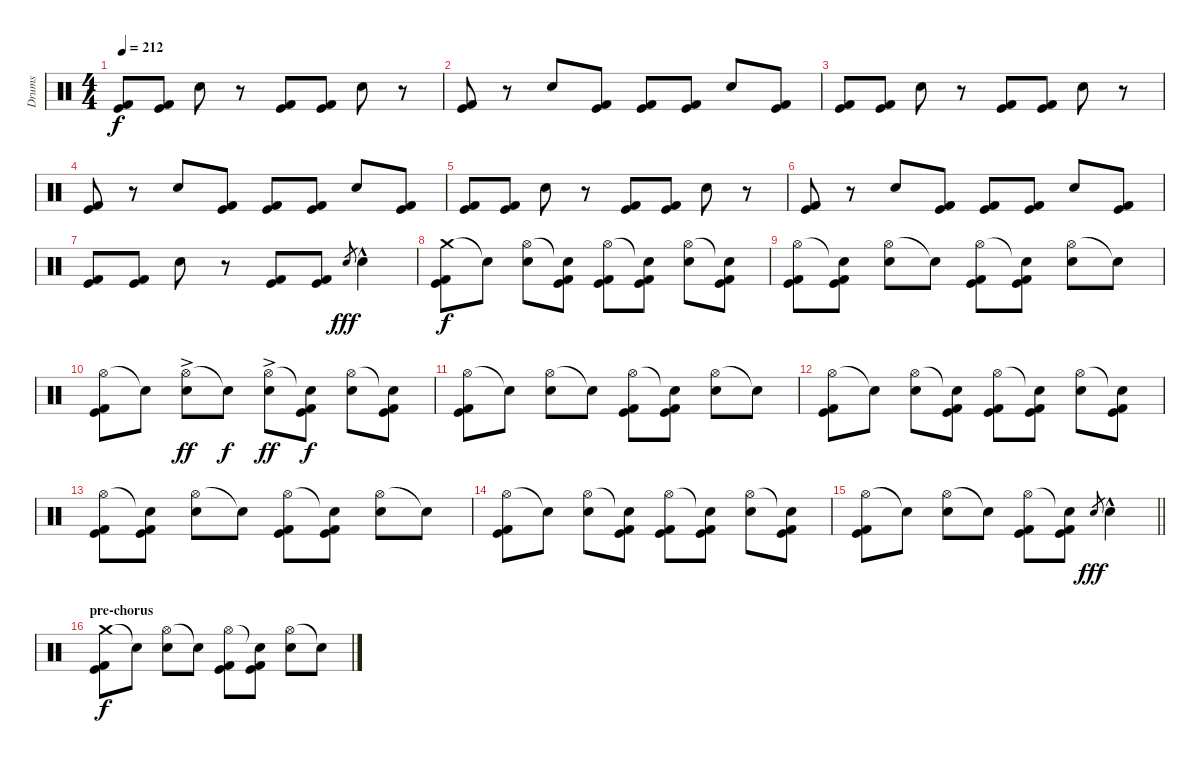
\track ("Drums" "Drums") {instrument percussion}
\staff {score}
\articulation defaults
\ts (4 4)
\tempo 212
\clef neutral
\ks c
("Kick (hit)" "Kick (hit) 2").8{dy f} ("Kick (hit)" "Kick (hit) 2").8 "Snare (hit) 2".8 r.8 ("Kick (hit)" "Kick (hit) 2").8 ("Kick (hit)" "Kick (hit) 2").8 "Snare (hit) 2".8 r.8 |
("Kick (hit)" "Kick (hit) 2").8 r.8 "Snare (hit) 2".8 ("Kick (hit)" "Kick (hit) 2").8 ("Kick (hit)" "Kick (hit) 2").8 ("Kick (hit)" "Kick (hit) 2").8 "Snare (hit) 2".8 ("Kick (hit)" "Kick (hit) 2").8 |
("Kick (hit)" "Kick (hit) 2").8 ("Kick (hit)" "Kick (hit) 2").8 "Snare (hit) 2".8 r.8 ("Kick (hit)" "Kick (hit) 2").8 ("Kick (hit)" "Kick (hit) 2").8 "Snare (hit) 2".8 r.8 |
("Kick (hit)" "Kick (hit) 2").8 r.8 "Snare (hit) 2".8 ("Kick (hit)" "Kick (hit) 2").8 ("Kick (hit)" "Kick (hit) 2").8 ("Kick (hit)" "Kick (hit) 2").8 "Snare (hit) 2".8 ("Kick (hit)" "Kick (hit) 2").8 |
("Kick (hit)" "Kick (hit) 2").8 ("Kick (hit)" "Kick (hit) 2").8 "Snare (hit) 2".8 r.8 ("Kick (hit)" "Kick (hit) 2").8 ("Kick (hit)" "Kick (hit) 2").8 "Snare (hit) 2".8 r.8 |
("Kick (hit)" "Kick (hit) 2").8 r.8 "Snare (hit) 2".8 ("Kick (hit)" "Kick (hit) 2").8 ("Kick (hit)" "Kick (hit) 2").8 ("Kick (hit)" "Kick (hit) 2").8 "Snare (hit) 2".8 ("Kick (hit)" "Kick (hit) 2").8 |
("Kick (hit)" "Kick (hit) 2").8 ("Kick (hit)" "Kick (hit) 2").8 "Snare (hit) 2".8 r.8 ("Kick (hit)" "Kick (hit) 2").8 ("Kick (hit)" "Kick (hit) 2").8 "Snare (hit) 2".8{gr dy fff} "Snare (hit) 2"{hac}.4 |
("Crash medium (hit)" "Kick (hit)" "Kick (hit) 2").8{dy f} "Snare (hit)"{t}.8 ("Hi-Hat (open)" "Snare (hit) 2").8 ("Snare (hit)"{t} "Kick (hit)" "Kick (hit) 2").8 ("Hi-Hat (open)" "Kick (hit)" "Kick (hit) 2").8 ("Snare (hit)"{t} "Kick (hit)" "Kick (hit) 2").8 ("Hi-Hat (open)" "Snare (hit) 2").8 ("Snare (hit)"{t} "Kick (hit)" "Kick (hit) 2").8 |
("Hi-Hat (open)" "Kick (hit)" "Kick (hit) 2").8 ("Snare (hit)"{t} "Kick (hit)" "Kick (hit) 2").8 ("Hi-Hat (open)" "Snare (hit) 2").8 "Snare (hit)"{t}.8 ("Hi-Hat (open)" "Kick (hit)" "Kick (hit) 2").8 ("Snare (hit)"{t} "Kick (hit)" "Kick (hit) 2").8 ("Hi-Hat (open)" "Snare (hit) 2").8 "Snare (hit)"{t}.8 |
("Hi-Hat (open)" "Kick (hit)" "Kick (hit) 2").8 "Snare (hit)"{t}.8 ("Hi-Hat (open)" "Snare (hit) 2"{ac}).8{dy ff} "Snare (hit)"{t}.8{dy f} ("Hi-Hat (open)" "Snare (hit) 2"{ac}).8{dy ff} ("Snare (hit)"{t} "Kick (hit)" "Kick (hit) 2").8{dy f} ("Hi-Hat (open)" "Snare (hit) 2").8 ("Snare (hit)"{t} "Kick (hit)" "Kick (hit) 2").8 |
("Hi-Hat (open)" "Kick (hit)" "Kick (hit) 2").8 "Snare (hit)"{t}.8 ("Hi-Hat (open)" "Snare (hit) 2").8 "Snare (hit)"{t}.8 ("Hi-Hat (open)" "Kick (hit)" "Kick (hit) 2").8 ("Snare (hit)"{t} "Kick (hit)" "Kick (hit) 2").8 ("Hi-Hat (open)" "Snare (hit) 2").8 "Snare (hit)"{t}.8 |
("Hi-Hat (open)" "Kick (hit)" "Kick (hit) 2").8 "Snare (hit)"{t}.8 ("Hi-Hat (open)" "Snare (hit) 2").8 ("Snare (hit)"{t} "Kick (hit)" "Kick (hit) 2").8 ("Hi-Hat (open)" "Kick (hit)" "Kick (hit) 2").8 ("Snare (hit)"{t} "Kick (hit)" "Kick (hit) 2").8 ("Hi-Hat (open)" "Snare (hit) 2").8 ("Snare (hit)"{t} "Kick (hit)" "Kick (hit) 2").8 |
("Hi-Hat (open)" "Kick (hit)" "Kick (hit) 2").8 ("Snare (hit)"{t} "Kick (hit)" "Kick (hit) 2").8 ("Hi-Hat (open)" "Snare (hit) 2").8 "Snare (hit)"{t}.8 ("Hi-Hat (open)" "Kick (hit)" "Kick (hit) 2").8 ("Snare (hit)"{t} "Kick (hit)" "Kick (hit) 2").8 ("Hi-Hat (open)" "Snare (hit) 2").8 "Snare (hit)"{t}.8 |
("Hi-Hat (open)" "Kick (hit)" "Kick (hit) 2").8 "Snare (hit)"{t}.8 ("Hi-Hat (open)" "Snare (hit) 2").8 ("Snare (hit)"{t} "Kick (hit)" "Kick (hit) 2").8 ("Hi-Hat (open)" "Kick (hit)" "Kick (hit) 2").8 ("Snare (hit)"{t} "Kick (hit)" "Kick (hit) 2").8 ("Hi-Hat (open)" "Snare (hit) 2").8 ("Snare (hit)"{t} "Kick (hit)" "Kick (hit) 2").8 |
\barLineRight lightlight
("Hi-Hat (open)" "Kick (hit)" "Kick (hit) 2").8 "Snare (hit)"{t}.8 ("Hi-Hat (open)" "Snare (hit) 2").8 "Snare (hit)"{t}.8 ("Hi-Hat (open)" "Kick (hit)" "Kick (hit) 2").8 ("Snare (hit)"{t} "Kick (hit)" "Kick (hit) 2").8 "Snare (hit) 2".8{gr dy fff} "Snare (hit) 2"{hac}.4 |
\section ("" "pre-chorus")
("Crash medium (hit)" "Kick (hit)" "Kick (hit) 2").8{dy f} "Snare (hit)"{t}.8 ("Hi-Hat (open)" "Snare (hit) 2").8 "Snare (hit)"{t}.8 ("Hi-Hat (open)" "Kick (hit)" "Kick (hit) 2").8 ("Snare (hit)"{t} "Kick (hit)" "Kick (hit) 2").8 ("Hi-Hat (open)" "Snare (hit) 2").8 "Snare (hit)"{t}.8
